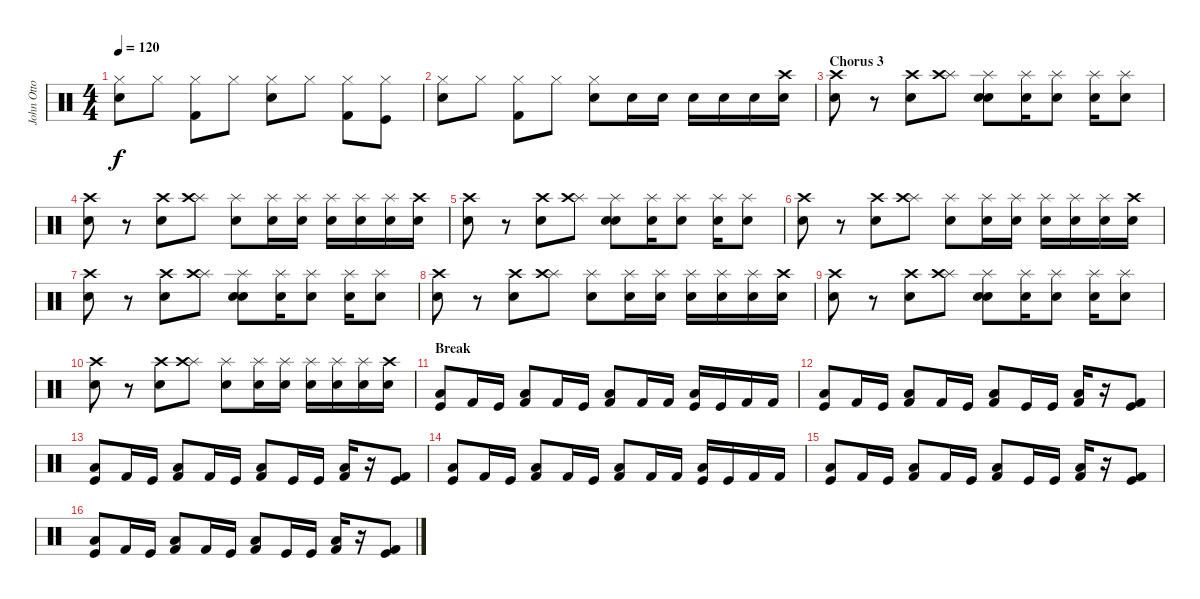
\track ("John Otto (Drums)" "John Otto ") {instrument percussion}
\staff {score}
\articulation defaults
\ts (4 4)
\tempo 120
\clef neutral
\ks c
("Hi-Hat (closed)" "Electric Snare (hit)").8{dy f} "Hi-Hat (closed)".8 ("Hi-Hat (closed)" "Kick (hit) 2").8 "Hi-Hat (closed)".8 ("Hi-Hat (closed)" "Electric Snare (hit)").8 "Hi-Hat (closed)".8 ("Hi-Hat (closed)" "Kick (hit) 2").8 ("Hi-Hat (closed)" "Kick (hit)").8 |
("Hi-Hat (closed)" "Electric Snare (hit)").8 "Hi-Hat (closed)".8 ("Hi-Hat (closed)" "Kick (hit) 2").8 "Hi-Hat (closed)".8 ("Hi-Hat (closed)" "Electric Snare (hit)").8 "Snare (hit) 2".16 "Snare (hit) 2".16 "Electric Snare (hit)".16 "Electric Snare (hit)".16 "Snare (hit) 2".16 ("Electric Snare (hit)" "Crash high (hit)").16 |
\section ("" "Chorus 3")
("Snare (hit) 2" "Crash high (hit)").8 r.8 ("Snare (hit) 2" "Crash high (hit)").8 ("Splash (hit)" "Crash high (hit)").8 ("Splash (hit)" "Electric Snare (hit)" "Snare (hit)").8 ("Splash (hit)" "Snare (hit) 2").16 ("Splash (hit)" "Snare (hit) 2").8 ("Splash (hit)" "Electric Snare (hit)").16 ("Splash (hit)" "Electric Snare (hit)").8 |
("Snare (hit) 2" "Crash high (hit)").8 r.8 ("Snare (hit) 2" "Crash high (hit)").8 ("Splash (hit)" "Crash high (hit)").8 ("Splash (hit)" "Electric Snare (hit)").8 ("Splash (hit)" "Snare (hit) 2").16 ("Splash (hit)" "Snare (hit) 2").16 ("Splash (hit)" "Electric Snare (hit)").16 ("Splash (hit)" "Electric Snare (hit)").16 ("Splash (hit)" "Snare (hit) 2").16 ("Electric Snare (hit)" "Crash high (hit)").16 |
("Snare (hit) 2" "Crash high (hit)").8 r.8 ("Snare (hit) 2" "Crash high (hit)").8 ("Splash (hit)" "Crash high (hit)").8 ("Splash (hit)" "Electric Snare (hit)" "Snare (hit)").8 ("Splash (hit)" "Snare (hit) 2").16 ("Splash (hit)" "Snare (hit) 2").8 ("Splash (hit)" "Electric Snare (hit)").16 ("Splash (hit)" "Electric Snare (hit)").8 |
("Snare (hit) 2" "Crash high (hit)").8 r.8 ("Snare (hit) 2" "Crash high (hit)").8 ("Splash (hit)" "Crash high (hit)").8 ("Splash (hit)" "Electric Snare (hit)").8 ("Splash (hit)" "Snare (hit) 2").16 ("Splash (hit)" "Snare (hit) 2").16 ("Splash (hit)" "Electric Snare (hit)").16 ("Splash (hit)" "Electric Snare (hit)").16 ("Splash (hit)" "Snare (hit) 2").16 ("Electric Snare (hit)" "Crash high (hit)").16 |
("Snare (hit) 2" "Crash high (hit)").8 r.8 ("Snare (hit) 2" "Crash high (hit)").8 ("Splash (hit)" "Crash high (hit)").8 ("Splash (hit)" "Electric Snare (hit)" "Snare (hit)").8 ("Splash (hit)" "Snare (hit) 2").16 ("Splash (hit)" "Snare (hit) 2").8 ("Splash (hit)" "Electric Snare (hit)").16 ("Splash (hit)" "Electric Snare (hit)").8 |
("Snare (hit) 2" "Crash high (hit)").8 r.8 ("Snare (hit) 2" "Crash high (hit)").8 ("Splash (hit)" "Crash high (hit)").8 ("Splash (hit)" "Electric Snare (hit)").8 ("Splash (hit)" "Snare (hit) 2").16 ("Splash (hit)" "Snare (hit) 2").16 ("Splash (hit)" "Electric Snare (hit)").16 ("Splash (hit)" "Electric Snare (hit)").16 ("Splash (hit)" "Snare (hit) 2").16 ("Electric Snare (hit)" "Crash high (hit)").16 |
("Snare (hit) 2" "Crash high (hit)").8 r.8 ("Snare (hit) 2" "Crash high (hit)").8 ("Splash (hit)" "Crash high (hit)").8 ("Splash (hit)" "Electric Snare (hit)" "Snare (hit)").8 ("Splash (hit)" "Snare (hit) 2").16 ("Splash (hit)" "Snare (hit) 2").8 ("Splash (hit)" "Electric Snare (hit)").16 ("Splash (hit)" "Electric Snare (hit)").8 |
("Snare (hit) 2" "Crash high (hit)").8 r.8 ("Snare (hit) 2" "Crash high (hit)").8 ("Splash (hit)" "Crash high (hit)").8 ("Splash (hit)" "Electric Snare (hit)").8 ("Splash (hit)" "Snare (hit) 2").16 ("Splash (hit)" "Snare (hit) 2").16 ("Splash (hit)" "Electric Snare (hit)").16 ("Splash (hit)" "Electric Snare (hit)").16 ("Splash (hit)" "Snare (hit) 2").16 ("Electric Snare (hit)" "Crash high (hit)").16 |
\section ("" "Break")
("Kick (hit)" "Low Floor Tom (hit)").8 "Kick (hit) 2".16 "Kick (hit)".16 ("Kick (hit) 2" "Low Floor Tom (hit)").8 "Kick (hit) 2".16 "Kick (hit)".16 ("Kick (hit) 2" "Low Floor Tom (hit)").8 "Kick (hit) 2".16 "Kick (hit) 2".16 ("Kick (hit)" "Low Floor Tom (hit)").16 "Kick (hit)".16 "Kick (hit) 2".16 "Kick (hit) 2".16 |
("Kick (hit)" "Low Floor Tom (hit)").8 "Kick (hit) 2".16 "Kick (hit)".16 ("Kick (hit) 2" "Low Floor Tom (hit)").8 "Kick (hit) 2".16 "Kick (hit)".16 ("Kick (hit) 2" "Low Floor Tom (hit)").8 "Kick (hit)".16 "Kick (hit)".16 ("Kick (hit) 2" "Low Floor Tom (hit)").16 r.16 ("Kick (hit) 2" "Kick (hit)").8 |
("Kick (hit)" "Low Floor Tom (hit)").8 "Kick (hit) 2".16 "Kick (hit)".16 ("Kick (hit) 2" "Low Floor Tom (hit)").8 "Kick (hit) 2".16 "Kick (hit)".16 ("Kick (hit) 2" "Low Floor Tom (hit)").8 "Kick (hit)".16 "Kick (hit)".16 ("Kick (hit) 2" "Low Floor Tom (hit)").16 r.16 ("Kick (hit) 2" "Kick (hit)").8 |
("Kick (hit)" "Low Floor Tom (hit)").8 "Kick (hit) 2".16 "Kick (hit)".16 ("Kick (hit) 2" "Low Floor Tom (hit)").8 "Kick (hit) 2".16 "Kick (hit)".16 ("Kick (hit) 2" "Low Floor Tom (hit)").8 "Kick (hit) 2".16 "Kick (hit) 2".16 ("Kick (hit)" "Low Floor Tom (hit)").16 "Kick (hit)".16 "Kick (hit) 2".16 "Kick (hit) 2".16 |
("Kick (hit)" "Low Floor Tom (hit)").8 "Kick (hit) 2".16 "Kick (hit)".16 ("Kick (hit) 2" "Low Floor Tom (hit)").8 "Kick (hit) 2".16 "Kick (hit)".16 ("Kick (hit) 2" "Low Floor Tom (hit)").8 "Kick (hit)".16 "Kick (hit)".16 ("Kick (hit) 2" "Low Floor Tom (hit)").16 r.16 ("Kick (hit) 2" "Kick (hit)").8 |
("Kick (hit)" "Low Floor Tom (hit)").8 "Kick (hit) 2".16 "Kick (hit)".16 ("Kick (hit) 2" "Low Floor Tom (hit)").8 "Kick (hit) 2".16 "Kick (hit)".16 ("Kick (hit) 2" "Low Floor Tom (hit)").8 "Kick (hit)".16 "Kick (hit)".16 ("Kick (hit) 2" "Low Floor Tom (hit)").16 r.16 ("Kick (hit) 2" "Kick (hit)").8
